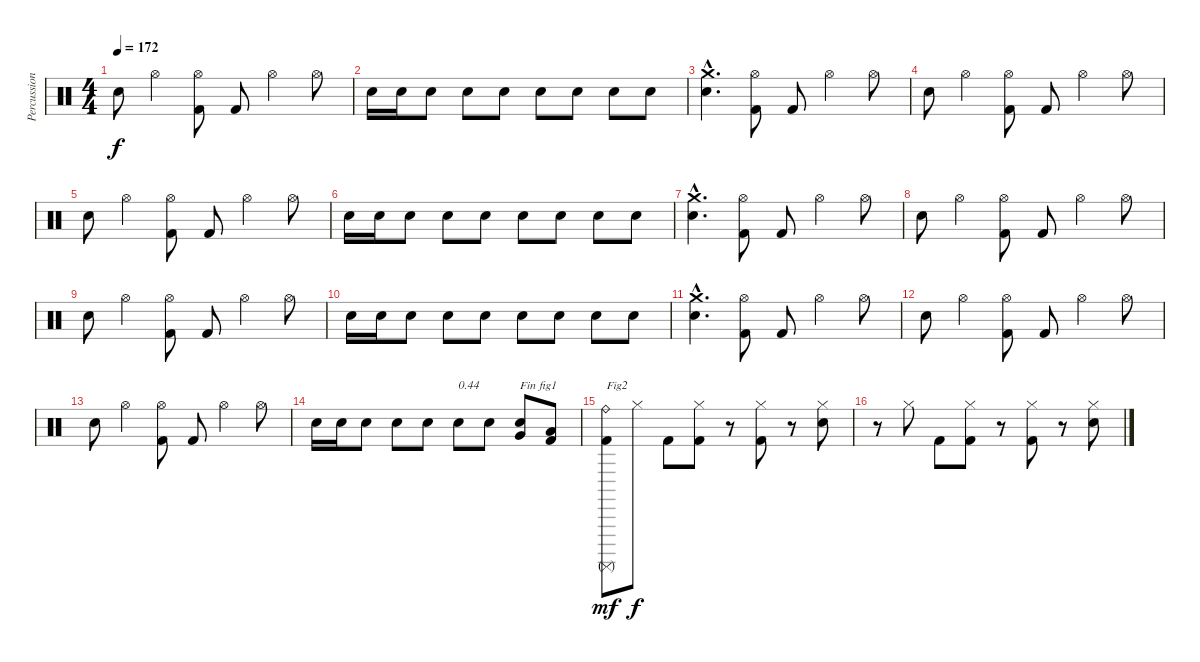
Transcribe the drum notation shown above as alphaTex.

\track ("Percussions" "Percussion") {instrument percussion}
\staff {score}
\articulation defaults
\ts (4 4)
\tempo 172
\clef neutral
\ks c "Electric Snare (hit)".8{dy f} "Hi-Hat (open)".4
("Kick (hit) 2" "Hi-Hat (open)").8 "Kick (hit) 2".8 "Hi-Hat (open)".4 "Hi-Hat (open)".8 |
"Electric Snare (hit)".16 "Electric Snare (hit)".16 "Electric Snare (hit)".8 "Electric Snare (hit)".8 "Electric Snare (hit)".8 "Electric Snare (hit)".8 "Electric Snare (hit)".8 "Electric Snare (hit)".8 "Electric Snare (hit)".8 |
("Electric Snare (hit)"{hac} "Crash medium (hit)"{hac}).4{d} ("Kick (hit) 2" "Hi-Hat (open)").8 "Kick (hit) 2".8 "Hi-Hat (open)".4 "Hi-Hat (open)".8 |
"Electric Snare (hit)".8 "Hi-Hat (open)".4 ("Kick (hit) 2" "Hi-Hat (open)").8 "Kick (hit) 2".8 "Hi-Hat (open)".4 "Hi-Hat (open)".8 |
"Electric Snare (hit)".8 "Hi-Hat (open)".4 ("Kick (hit) 2" "Hi-Hat (open)").8 "Kick (hit) 2".8 "Hi-Hat (open)".4 "Hi-Hat (open)".8 |
"Electric Snare (hit)".16 "Electric Snare (hit)".16 "Electric Snare (hit)".8 "Electric Snare (hit)".8 "Electric Snare (hit)".8 "Electric Snare (hit)".8 "Electric Snare (hit)".8 "Electric Snare (hit)".8 "Electric Snare (hit)".8 |
("Electric Snare (hit)"{hac} "Crash medium (hit)"{hac}).4{d} ("Kick (hit) 2" "Hi-Hat (open)").8 "Kick (hit) 2".8 "Hi-Hat (open)".4 "Hi-Hat (open)".8 |
"Electric Snare (hit)".8 "Hi-Hat (open)".4 ("Kick (hit) 2" "Hi-Hat (open)").8 "Kick (hit) 2".8 "Hi-Hat (open)".4 "Hi-Hat (open)".8 |
"Electric Snare (hit)".8 "Hi-Hat (open)".4 ("Kick (hit) 2" "Hi-Hat (open)").8 "Kick (hit) 2".8 "Hi-Hat (open)".4 "Hi-Hat (open)".8 |
"Electric Snare (hit)".16 "Electric Snare (hit)".16 "Electric Snare (hit)".8 "Electric Snare (hit)".8 "Electric Snare (hit)".8 "Electric Snare (hit)".8 "Electric Snare (hit)".8 "Electric Snare (hit)".8 "Electric Snare (hit)".8 |
("Electric Snare (hit)"{hac} "Crash medium (hit)"{hac}).4{d} ("Kick (hit) 2" "Hi-Hat (open)").8 "Kick (hit) 2".8 "Hi-Hat (open)".4 "Hi-Hat (open)".8 |
"Electric Snare (hit)".8 "Hi-Hat (open)".4 ("Kick (hit) 2" "Hi-Hat (open)").8 "Kick (hit) 2".8 "Hi-Hat (open)".4 "Hi-Hat (open)".8 |
"Electric Snare (hit)".8 "Hi-Hat (open)".4 ("Kick (hit) 2" "Hi-Hat (open)").8 "Kick (hit) 2".8 "Hi-Hat (open)".4 "Hi-Hat (open)".8 |
"Electric Snare (hit)".16 "Electric Snare (hit)".16 "Electric Snare (hit)".8 "Electric Snare (hit)".8 "Electric Snare (hit)".8 "Electric Snare (hit)".8{txt "0.44"} "Electric Snare (hit)".8 ("Electric Snare (hit)" "Very Low Tom (hit)").8{txt "Fin fig1"} ("Kick (hit) 2" "Low Floor Tom (hit)").8 |
("Kick (hit) 2" "Surdo (mute)" "Ride (bell)").8{txt "Fig2" dy mf} "Hi-Hat (closed)".8{dy f} "Kick (hit) 2".8 ("Kick (hit) 2" "Hi-Hat (closed)").8 r.8 ("Kick (hit) 2" "Hi-Hat (closed)").8 r.8 ("Electric Snare (hit)" "Hi-Hat (closed)").8 |
r.8 "Hi-Hat (closed)".8 "Kick (hit) 2".8 ("Kick (hit) 2" "Hi-Hat (closed)").8 r.8 ("Kick (hit) 2" "Hi-Hat (closed)").8 r.8 ("Electric Snare (hit)" "Hi-Hat (closed)").8
